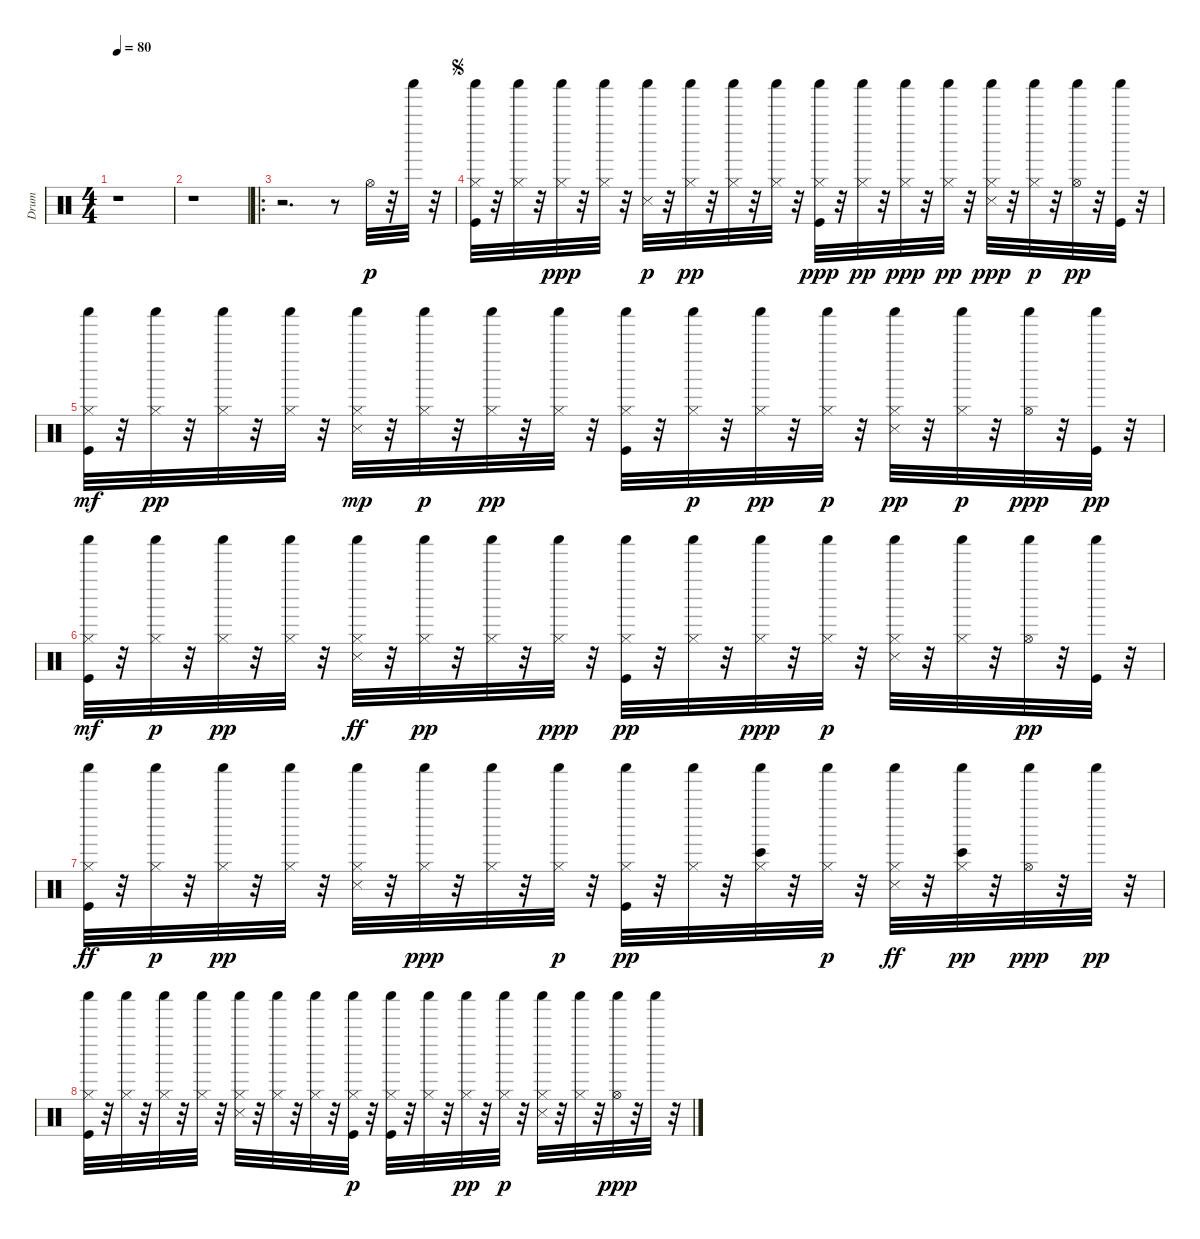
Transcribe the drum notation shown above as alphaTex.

\track ("Drum" "Drum") {instrument percussion}
\staff {score}
\articulation defaults
\ts (4 4)
\tempo 80
\clef neutral
\ks c
r.1{dy p} |
r.1 |
\ro
r.2{d} r.8 "Hi-Hat (open)".32 r.32 "Shaker (hit)".32 r.32 |
\jump segno
("Shaker (hit)" "Kick (hit)" "Hi-Hat (closed)").32 r.32 ("Shaker (hit)" "Hi-Hat (closed)").32 r.32 ("Hi-Hat (closed)" "Shaker (hit)").32{dy ppp} r.32 ("Shaker (hit)" "Hi-Hat (closed)").32 r.32 ("Snare (side stick) 3" "Shaker (hit)").32{dy p} r.32 ("Shaker (hit)" "Hi-Hat (closed)").32{dy pp} r.32 ("Shaker (hit)" "Hi-Hat (closed)").32 r.32 ("Shaker (hit)" "Hi-Hat (closed)").32 r.32 ("Kick (hit)" "Shaker (hit)" "Hi-Hat (closed)").32{dy ppp} r.32 ("Shaker (hit)" "Hi-Hat (closed)").32{dy pp} r.32 ("Shaker (hit)" "Hi-Hat (closed)").32{dy ppp} r.32 ("Shaker (hit)" "Hi-Hat (closed)").32{dy pp} r.32 ("Snare (side stick) 3" "Shaker (hit)" "Hi-Hat (closed)").32{dy ppp} r.32 ("Shaker (hit)" "Hi-Hat (closed)").32{dy p} r.32 ("Hi-Hat (open)" "Shaker (hit)").32{dy pp} r.32 ("Kick (hit)" "Shaker (hit)").32 r.32 |
("Shaker (hit)" "Hi-Hat (closed)" "Kick (hit)").32{dy mf} r.32 ("Shaker (hit)" "Hi-Hat (closed)").32{dy pp} r.32 ("Shaker (hit)" "Hi-Hat (closed)").32 r.32 ("Shaker (hit)" "Hi-Hat (closed)").32 r.32 ("Snare (side stick) 3" "Hi-Hat (closed)" "Shaker (hit)").32{dy mp} r.32 ("Shaker (hit)" "Hi-Hat (closed)").32{dy p} r.32 ("Shaker (hit)" "Hi-Hat (closed)").32{dy pp} r.32 ("Hi-Hat (closed)" "Shaker (hit)").32 r.32 ("Kick (hit)" "Shaker (hit)" "Hi-Hat (closed)").32 r.32 ("Hi-Hat (closed)" "Shaker (hit)").32{dy p} r.32 ("Hi-Hat (closed)" "Shaker (hit)").32{dy pp} r.32 ("Shaker (hit)" "Hi-Hat (closed)").32{dy p} r.32 ("Snare (side stick) 3" "Shaker (hit)" "Hi-Hat (closed)").32{dy pp} r.32 ("Shaker (hit)" "Hi-Hat (closed)").32{dy p} r.32 ("Hi-Hat (open)" "Shaker (hit)").32{dy ppp} r.32 ("Shaker (hit)" "Kick (hit)").32{dy pp} r.32 |
("Shaker (hit)" "Hi-Hat (closed)" "Kick (hit)").32{dy mf} r.32 ("Shaker (hit)" "Hi-Hat (closed)").32{dy p} r.32 ("Shaker (hit)" "Hi-Hat (closed)").32{dy pp} r.32 ("Shaker (hit)" "Hi-Hat (closed)").32 r.32 ("Shaker (hit)" "Hi-Hat (closed)" "Snare (side stick) 3").32{dy ff} r.32 ("Hi-Hat (closed)" "Shaker (hit)").32{dy pp} r.32 ("Hi-Hat (closed)" "Shaker (hit)").32 r.32 ("Hi-Hat (closed)" "Shaker (hit)").32{dy ppp} r.32 ("Kick (hit)" "Shaker (hit)" "Hi-Hat (closed)").32{dy pp} r.32 ("Shaker (hit)" "Hi-Hat (closed)").32 r.32 ("Shaker (hit)" "Hi-Hat (closed)").32{dy ppp} r.32 ("Shaker (hit)" "Hi-Hat (closed)").32{dy p} r.32 ("Snare (side stick) 3" "Shaker (hit)" "Hi-Hat (closed)").32 r.32 ("Shaker (hit)" "Hi-Hat (closed)").32 r.32 ("Hi-Hat (open)" "Shaker (hit)").32{dy pp} r.32 ("Kick (hit)" "Shaker (hit)").32 r.32 |
("Shaker (hit)" "Hi-Hat (closed)" "Kick (hit)").32{dy ff} r.32 ("Shaker (hit)" "Hi-Hat (closed)").32{dy p} r.32 ("Shaker (hit)" "Hi-Hat (closed)").32{dy pp} r.32 ("Shaker (hit)" "Hi-Hat (closed)").32 r.32 ("Snare (side stick) 3" "Shaker (hit)" "Hi-Hat (closed)").32 r.32 ("Shaker (hit)" "Hi-Hat (closed)").32{dy ppp} r.32 ("Shaker (hit)" "Hi-Hat (closed)").32 r.32 ("Shaker (hit)" "Hi-Hat (closed)").32{dy p} r.32 ("Kick (hit)" "Shaker (hit)" "Hi-Hat (closed)").32{dy pp} r.32 ("Hi-Hat (closed)" "Shaker (hit)").32 r.32 ("Bongo High (hit)" "Hi-Hat (closed)" "Shaker (hit)").32 r.32 ("Shaker (hit)" "Hi-Hat (closed)").32{dy p} r.32 ("Shaker (hit)" "Hi-Hat (closed)" "Snare (side stick) 3").32{dy ff} r.32 ("Hi-Hat (closed)" "Bongo High (hit)" "Shaker (hit)").32{dy pp} r.32 ("Hi-Hat (open)" "Shaker (hit)").32{dy ppp} r.32 "Shaker (hit)".32{dy pp} r.32 |
("Shaker (hit)" "Kick (hit)" "Hi-Hat (closed)").32 r.32 ("Hi-Hat (closed)" "Shaker (hit)").32 r.32 ("Shaker (hit)" "Hi-Hat (closed)").32 r.32 ("Shaker (hit)" "Hi-Hat (closed)").32 r.32 ("Snare (side stick) 3" "Shaker (hit)" "Hi-Hat (closed)").32 r.32 ("Shaker (hit)" "Hi-Hat (closed)").32 r.32 ("Shaker (hit)" "Hi-Hat (closed)").32 r.32 ("Kick (hit)" "Shaker (hit)" "Hi-Hat (closed)").32{dy p} r.32 ("Kick (hit)" "Shaker (hit)" "Hi-Hat (closed)").32 r.32 ("Shaker (hit)" "Hi-Hat (closed)").32 r.32 ("Shaker (hit)" "Hi-Hat (closed)").32{dy pp} r.32 ("Shaker (hit)" "Hi-Hat (closed)").32{dy p} r.32 ("Snare (side stick) 3" "Hi-Hat (closed)" "Shaker (hit)").32 r.32 ("Shaker (hit)" "Hi-Hat (closed)").32 r.32 ("Hi-Hat (open)" "Shaker (hit)").32{dy ppp} r.32 "Shaker (hit)".32 r.32
